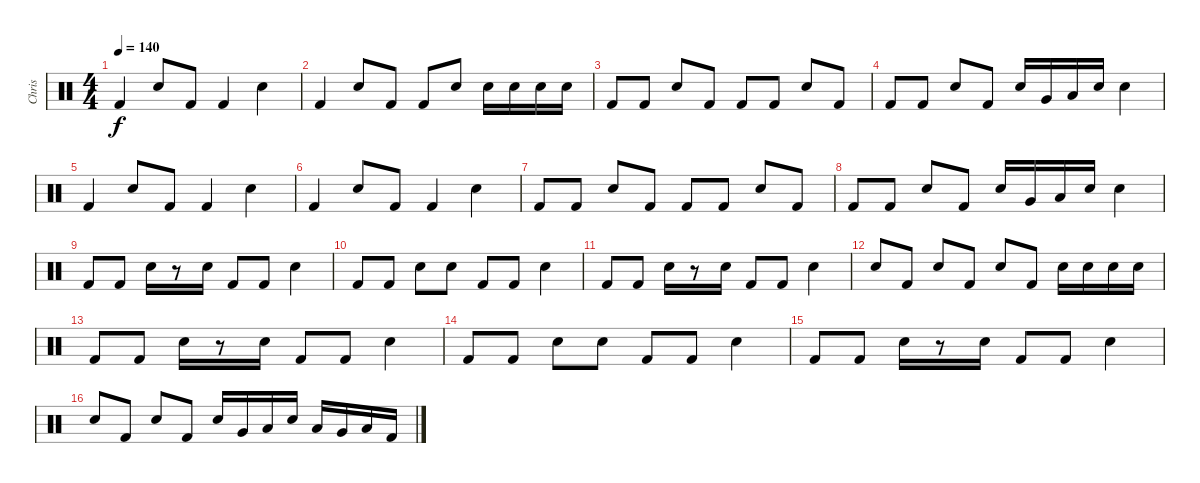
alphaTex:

\track ("Chris" "Chris") {instrument percussion}
\staff {score}
\articulation defaults
\ts (4 4)
\tempo 140
\clef neutral
\ks c "Kick (hit) 2".4{dy f} "Snare (hit) 2".8 "Kick (hit) 2".8 "Kick (hit) 2".4 "Snare (hit) 2".4
|
"Kick (hit) 2".4 "Snare (hit) 2".8 "Kick (hit) 2".8 "Kick (hit) 2".8 "Snare (hit) 2".8 "Snare (hit) 2".16 "Snare (hit) 2".16 "Snare (hit) 2".16 "Snare (hit) 2".16 |
"Kick (hit) 2".8 "Kick (hit) 2".8 "Snare (hit) 2".8 "Kick (hit) 2".8 "Kick (hit) 2".8 "Kick (hit) 2".8 "Snare (hit) 2".8 "Kick (hit) 2".8 |
"Kick (hit) 2".8 "Kick (hit) 2".8 "Snare (hit) 2".8 "Kick (hit) 2".8 "Snare (hit) 2".16 "Very Low Tom (hit)".16 "Low Floor Tom (hit)".16 "Snare (hit) 2".16 "Snare (hit) 2".4 |
"Kick (hit) 2".4 "Snare (hit) 2".8 "Kick (hit) 2".8 "Kick (hit) 2".4 "Snare (hit) 2".4 |
"Kick (hit) 2".4 "Snare (hit) 2".8 "Kick (hit) 2".8 "Kick (hit) 2".4 "Snare (hit) 2".4 |
"Kick (hit) 2".8 "Kick (hit) 2".8 "Snare (hit) 2".8 "Kick (hit) 2".8 "Kick (hit) 2".8 "Kick (hit) 2".8 "Snare (hit) 2".8 "Kick (hit) 2".8 |
"Kick (hit) 2".8 "Kick (hit) 2".8 "Snare (hit) 2".8 "Kick (hit) 2".8 "Snare (hit) 2".16 "Very Low Tom (hit)".16 "Low Floor Tom (hit)".16 "Snare (hit) 2".16 "Snare (hit) 2".4 |
"Kick (hit) 2".8 "Kick (hit) 2".8 "Snare (hit) 2".16 r.8 "Snare (hit) 2".16 "Kick (hit) 2".8 "Kick (hit) 2".8 "Snare (hit) 2".4 |
"Kick (hit) 2".8 "Kick (hit) 2".8 "Snare (hit) 2".8 "Snare (hit) 2".8 "Kick (hit) 2".8 "Kick (hit) 2".8 "Snare (hit) 2".4 |
"Kick (hit) 2".8 "Kick (hit) 2".8 "Snare (hit) 2".16 r.8 "Snare (hit) 2".16 "Kick (hit) 2".8 "Kick (hit) 2".8 "Snare (hit) 2".4 |
"Snare (hit) 2".8 "Kick (hit) 2".8 "Snare (hit) 2".8 "Kick (hit) 2".8 "Snare (hit) 2".8 "Kick (hit) 2".8 "Snare (hit) 2".16 "Snare (hit) 2".16 "Snare (hit) 2".16 "Snare (hit) 2".16 |
"Kick (hit) 2".8 "Kick (hit) 2".8 "Snare (hit) 2".16 r.8 "Snare (hit) 2".16 "Kick (hit) 2".8 "Kick (hit) 2".8 "Snare (hit) 2".4 |
"Kick (hit) 2".8 "Kick (hit) 2".8 "Snare (hit) 2".8 "Snare (hit) 2".8 "Kick (hit) 2".8 "Kick (hit) 2".8 "Snare (hit) 2".4 |
"Kick (hit) 2".8 "Kick (hit) 2".8 "Snare (hit) 2".16 r.8 "Snare (hit) 2".16 "Kick (hit) 2".8 "Kick (hit) 2".8 "Snare (hit) 2".4 |
"Snare (hit) 2".8 "Kick (hit) 2".8 "Snare (hit) 2".8 "Kick (hit) 2".8 "Snare (hit) 2".16 "Very Low Tom (hit)".16 "Low Floor Tom (hit)".16 "Snare (hit) 2".16 "Low Tom (hit)".16 "Very Low Tom (hit)".16 "Low Floor Tom (hit)".16 "Kick (hit) 2".16
